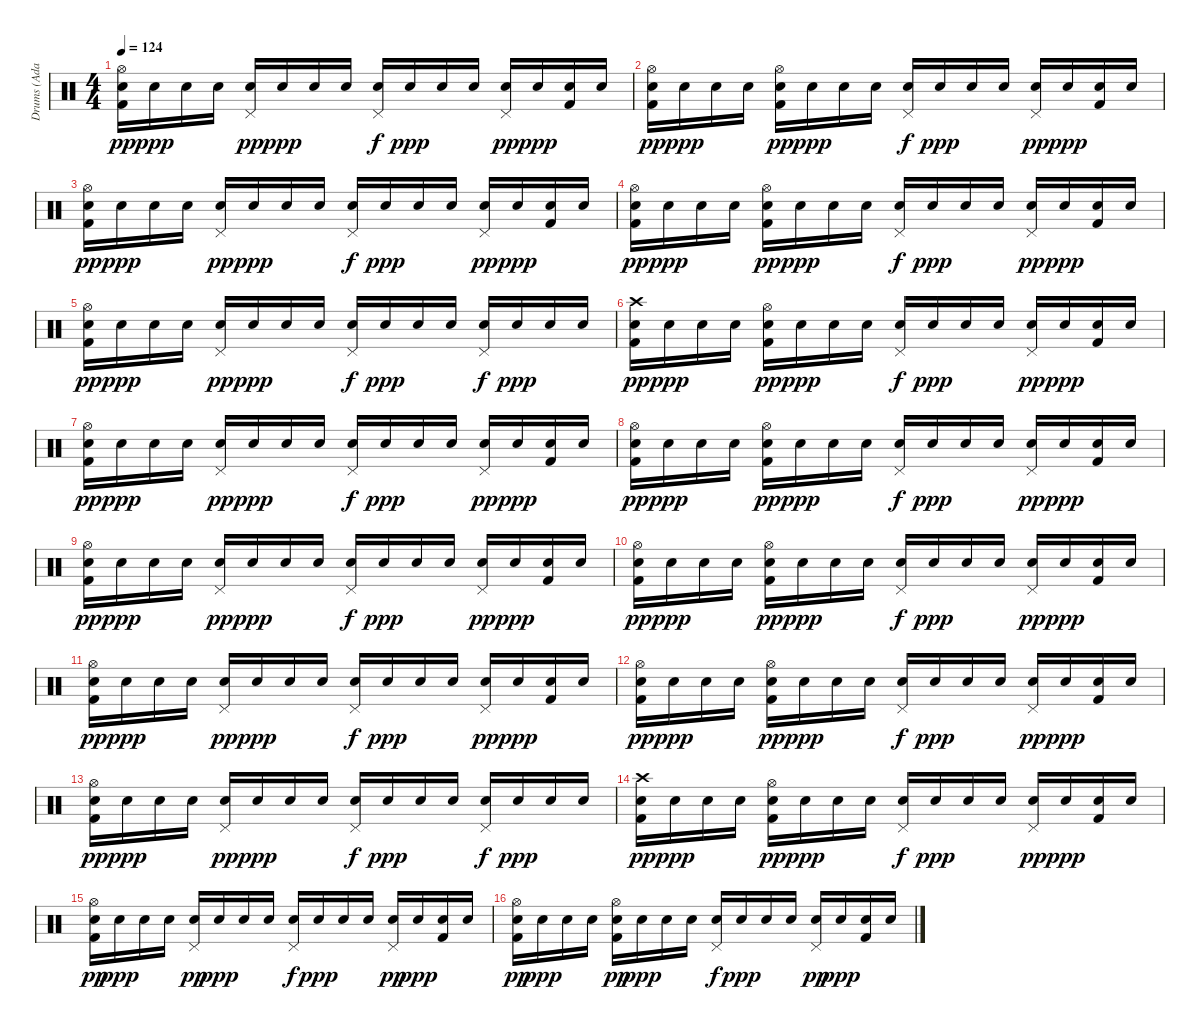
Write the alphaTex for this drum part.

\track ("Drums (Adam Morgan)" "Drums (Ada") {instrument percussion}
\staff {score}
\articulation defaults
\ts (4 4)
\tempo 124
\clef neutral
\ks c
("Hi-Hat (open)" "Snare (hit) 2" "Kick (hit) 2").16{dy pp} "Snare (hit) 2".16{dy ppp} "Snare (hit) 2".16 "Snare (hit) 2".16 ("Pedal Hi-Hat (hit)" "Snare (hit) 2").16{dy pp} "Snare (hit) 2".16{dy ppp} "Snare (hit) 2".16 "Snare (hit) 2".16 ("Pedal Hi-Hat (hit)" "Snare (hit) 2").16{dy f} "Snare (hit) 2".16{dy ppp} "Snare (hit) 2".16 "Snare (hit) 2".16 ("Pedal Hi-Hat (hit)" "Snare (hit) 2").16{dy pp} "Snare (hit) 2".16{dy ppp} ("Snare (hit) 2" "Kick (hit) 2").16 "Snare (hit) 2".16 |
("Hi-Hat (open)" "Snare (hit) 2" "Kick (hit) 2").16{dy pp} "Snare (hit) 2".16{dy ppp} "Snare (hit) 2".16 "Snare (hit) 2".16 ("Hi-Hat (open)" "Snare (hit) 2" "Kick (hit) 2").16{dy pp} "Snare (hit) 2".16{dy ppp} "Snare (hit) 2".16 "Snare (hit) 2".16 ("Pedal Hi-Hat (hit)" "Snare (hit) 2").16{dy f} "Snare (hit) 2".16{dy ppp} "Snare (hit) 2".16 "Snare (hit) 2".16 ("Pedal Hi-Hat (hit)" "Snare (hit) 2").16{dy pp} "Snare (hit) 2".16{dy ppp} ("Snare (hit) 2" "Kick (hit) 2").16 "Snare (hit) 2".16 |
("Hi-Hat (open)" "Snare (hit) 2" "Kick (hit) 2").16{dy pp} "Snare (hit) 2".16{dy ppp} "Snare (hit) 2".16 "Snare (hit) 2".16 ("Pedal Hi-Hat (hit)" "Snare (hit) 2").16{dy pp} "Snare (hit) 2".16{dy ppp} "Snare (hit) 2".16 "Snare (hit) 2".16 ("Pedal Hi-Hat (hit)" "Snare (hit) 2").16{dy f} "Snare (hit) 2".16{dy ppp} "Snare (hit) 2".16 "Snare (hit) 2".16 ("Pedal Hi-Hat (hit)" "Snare (hit) 2").16{dy pp} "Snare (hit) 2".16{dy ppp} ("Snare (hit) 2" "Kick (hit) 2").16 "Snare (hit) 2".16 |
("Hi-Hat (open)" "Snare (hit) 2" "Kick (hit) 2").16{dy pp} "Snare (hit) 2".16{dy ppp} "Snare (hit) 2".16 "Snare (hit) 2".16 ("Hi-Hat (open)" "Snare (hit) 2" "Kick (hit) 2").16{dy pp} "Snare (hit) 2".16{dy ppp} "Snare (hit) 2".16 "Snare (hit) 2".16 ("Pedal Hi-Hat (hit)" "Snare (hit) 2").16{dy f} "Snare (hit) 2".16{dy ppp} "Snare (hit) 2".16 "Snare (hit) 2".16 ("Pedal Hi-Hat (hit)" "Snare (hit) 2").16{dy pp} "Snare (hit) 2".16{dy ppp} ("Snare (hit) 2" "Kick (hit) 2").16 "Snare (hit) 2".16 |
("Hi-Hat (open)" "Snare (hit) 2" "Kick (hit) 2").16{dy pp} "Snare (hit) 2".16{dy ppp} "Snare (hit) 2".16 "Snare (hit) 2".16 ("Pedal Hi-Hat (hit)" "Snare (hit) 2").16{dy pp} "Snare (hit) 2".16{dy ppp} "Snare (hit) 2".16 "Snare (hit) 2".16 ("Pedal Hi-Hat (hit)" "Snare (hit) 2").16{dy f} "Snare (hit) 2".16{dy ppp} "Snare (hit) 2".16 "Snare (hit) 2".16 ("Pedal Hi-Hat (hit)" "Snare (hit) 2").16{dy f} "Snare (hit) 2".16{dy ppp} "Snare (hit) 2".16 "Snare (hit) 2".16 |
("Crash high (hit)" "Snare (hit) 2" "Kick (hit) 2").16{dy pp} "Snare (hit) 2".16{dy ppp} "Snare (hit) 2".16 "Snare (hit) 2".16 ("Hi-Hat (open)" "Snare (hit) 2" "Kick (hit) 2").16{dy pp} "Snare (hit) 2".16{dy ppp} "Snare (hit) 2".16 "Snare (hit) 2".16 ("Pedal Hi-Hat (hit)" "Snare (hit) 2").16{dy f} "Snare (hit) 2".16{dy ppp} "Snare (hit) 2".16 "Snare (hit) 2".16 ("Pedal Hi-Hat (hit)" "Snare (hit) 2").16{dy pp} "Snare (hit) 2".16{dy ppp} ("Snare (hit) 2" "Kick (hit) 2").16 "Snare (hit) 2".16 |
("Hi-Hat (open)" "Snare (hit) 2" "Kick (hit) 2").16{dy pp} "Snare (hit) 2".16{dy ppp} "Snare (hit) 2".16 "Snare (hit) 2".16 ("Pedal Hi-Hat (hit)" "Snare (hit) 2").16{dy pp} "Snare (hit) 2".16{dy ppp} "Snare (hit) 2".16 "Snare (hit) 2".16 ("Pedal Hi-Hat (hit)" "Snare (hit) 2").16{dy f} "Snare (hit) 2".16{dy ppp} "Snare (hit) 2".16 "Snare (hit) 2".16 ("Pedal Hi-Hat (hit)" "Snare (hit) 2").16{dy pp} "Snare (hit) 2".16{dy ppp} ("Snare (hit) 2" "Kick (hit) 2").16 "Snare (hit) 2".16 |
("Hi-Hat (open)" "Snare (hit) 2" "Kick (hit) 2").16{dy pp} "Snare (hit) 2".16{dy ppp} "Snare (hit) 2".16 "Snare (hit) 2".16 ("Hi-Hat (open)" "Snare (hit) 2" "Kick (hit) 2").16{dy pp} "Snare (hit) 2".16{dy ppp} "Snare (hit) 2".16 "Snare (hit) 2".16 ("Pedal Hi-Hat (hit)" "Snare (hit) 2").16{dy f} "Snare (hit) 2".16{dy ppp} "Snare (hit) 2".16 "Snare (hit) 2".16 ("Pedal Hi-Hat (hit)" "Snare (hit) 2").16{dy pp} "Snare (hit) 2".16{dy ppp} ("Snare (hit) 2" "Kick (hit) 2").16 "Snare (hit) 2".16 |
("Hi-Hat (open)" "Snare (hit) 2" "Kick (hit) 2").16{dy pp} "Snare (hit) 2".16{dy ppp} "Snare (hit) 2".16 "Snare (hit) 2".16 ("Pedal Hi-Hat (hit)" "Snare (hit) 2").16{dy pp} "Snare (hit) 2".16{dy ppp} "Snare (hit) 2".16 "Snare (hit) 2".16 ("Pedal Hi-Hat (hit)" "Snare (hit) 2").16{dy f} "Snare (hit) 2".16{dy ppp} "Snare (hit) 2".16 "Snare (hit) 2".16 ("Pedal Hi-Hat (hit)" "Snare (hit) 2").16{dy pp} "Snare (hit) 2".16{dy ppp} ("Snare (hit) 2" "Kick (hit) 2").16 "Snare (hit) 2".16 |
("Hi-Hat (open)" "Snare (hit) 2" "Kick (hit) 2").16{dy pp} "Snare (hit) 2".16{dy ppp} "Snare (hit) 2".16 "Snare (hit) 2".16 ("Hi-Hat (open)" "Snare (hit) 2" "Kick (hit) 2").16{dy pp} "Snare (hit) 2".16{dy ppp} "Snare (hit) 2".16 "Snare (hit) 2".16 ("Pedal Hi-Hat (hit)" "Snare (hit) 2").16{dy f} "Snare (hit) 2".16{dy ppp} "Snare (hit) 2".16 "Snare (hit) 2".16 ("Pedal Hi-Hat (hit)" "Snare (hit) 2").16{dy pp} "Snare (hit) 2".16{dy ppp} ("Snare (hit) 2" "Kick (hit) 2").16 "Snare (hit) 2".16 |
("Hi-Hat (open)" "Snare (hit) 2" "Kick (hit) 2").16{dy pp} "Snare (hit) 2".16{dy ppp} "Snare (hit) 2".16 "Snare (hit) 2".16 ("Pedal Hi-Hat (hit)" "Snare (hit) 2").16{dy pp} "Snare (hit) 2".16{dy ppp} "Snare (hit) 2".16 "Snare (hit) 2".16 ("Pedal Hi-Hat (hit)" "Snare (hit) 2").16{dy f} "Snare (hit) 2".16{dy ppp} "Snare (hit) 2".16 "Snare (hit) 2".16 ("Pedal Hi-Hat (hit)" "Snare (hit) 2").16{dy pp} "Snare (hit) 2".16{dy ppp} ("Snare (hit) 2" "Kick (hit) 2").16 "Snare (hit) 2".16 |
("Hi-Hat (open)" "Snare (hit) 2" "Kick (hit) 2").16{dy pp} "Snare (hit) 2".16{dy ppp} "Snare (hit) 2".16 "Snare (hit) 2".16 ("Hi-Hat (open)" "Snare (hit) 2" "Kick (hit) 2").16{dy pp} "Snare (hit) 2".16{dy ppp} "Snare (hit) 2".16 "Snare (hit) 2".16 ("Pedal Hi-Hat (hit)" "Snare (hit) 2").16{dy f} "Snare (hit) 2".16{dy ppp} "Snare (hit) 2".16 "Snare (hit) 2".16 ("Pedal Hi-Hat (hit)" "Snare (hit) 2").16{dy pp} "Snare (hit) 2".16{dy ppp} ("Snare (hit) 2" "Kick (hit) 2").16 "Snare (hit) 2".16 |
("Hi-Hat (open)" "Snare (hit) 2" "Kick (hit) 2").16{dy pp} "Snare (hit) 2".16{dy ppp} "Snare (hit) 2".16 "Snare (hit) 2".16 ("Pedal Hi-Hat (hit)" "Snare (hit) 2").16{dy pp} "Snare (hit) 2".16{dy ppp} "Snare (hit) 2".16 "Snare (hit) 2".16 ("Pedal Hi-Hat (hit)" "Snare (hit) 2").16{dy f} "Snare (hit) 2".16{dy ppp} "Snare (hit) 2".16 "Snare (hit) 2".16 ("Pedal Hi-Hat (hit)" "Snare (hit) 2").16{dy f} "Snare (hit) 2".16{dy ppp} "Snare (hit) 2".16 "Snare (hit) 2".16 |
("Crash high (hit)" "Snare (hit) 2" "Kick (hit) 2").16{dy pp} "Snare (hit) 2".16{dy ppp} "Snare (hit) 2".16 "Snare (hit) 2".16 ("Hi-Hat (open)" "Snare (hit) 2" "Kick (hit) 2").16{dy pp} "Snare (hit) 2".16{dy ppp} "Snare (hit) 2".16 "Snare (hit) 2".16 ("Pedal Hi-Hat (hit)" "Snare (hit) 2").16{dy f} "Snare (hit) 2".16{dy ppp} "Snare (hit) 2".16 "Snare (hit) 2".16 ("Pedal Hi-Hat (hit)" "Snare (hit) 2").16{dy pp} "Snare (hit) 2".16{dy ppp} ("Snare (hit) 2" "Kick (hit) 2").16 "Snare (hit) 2".16 |
("Hi-Hat (open)" "Snare (hit) 2" "Kick (hit) 2").16{dy pp} "Snare (hit) 2".16{dy ppp} "Snare (hit) 2".16 "Snare (hit) 2".16 ("Pedal Hi-Hat (hit)" "Snare (hit) 2").16{dy pp} "Snare (hit) 2".16{dy ppp} "Snare (hit) 2".16 "Snare (hit) 2".16 ("Pedal Hi-Hat (hit)" "Snare (hit) 2").16{dy f} "Snare (hit) 2".16{dy ppp} "Snare (hit) 2".16 "Snare (hit) 2".16 ("Pedal Hi-Hat (hit)" "Snare (hit) 2").16{dy pp} "Snare (hit) 2".16{dy ppp} ("Snare (hit) 2" "Kick (hit) 2").16 "Snare (hit) 2".16 |
("Hi-Hat (open)" "Snare (hit) 2" "Kick (hit) 2").16{dy pp} "Snare (hit) 2".16{dy ppp} "Snare (hit) 2".16 "Snare (hit) 2".16 ("Hi-Hat (open)" "Snare (hit) 2" "Kick (hit) 2").16{dy pp} "Snare (hit) 2".16{dy ppp} "Snare (hit) 2".16 "Snare (hit) 2".16 ("Pedal Hi-Hat (hit)" "Snare (hit) 2").16{dy f} "Snare (hit) 2".16{dy ppp} "Snare (hit) 2".16 "Snare (hit) 2".16 ("Pedal Hi-Hat (hit)" "Snare (hit) 2").16{dy pp} "Snare (hit) 2".16{dy ppp} ("Snare (hit) 2" "Kick (hit) 2").16 "Snare (hit) 2".16
